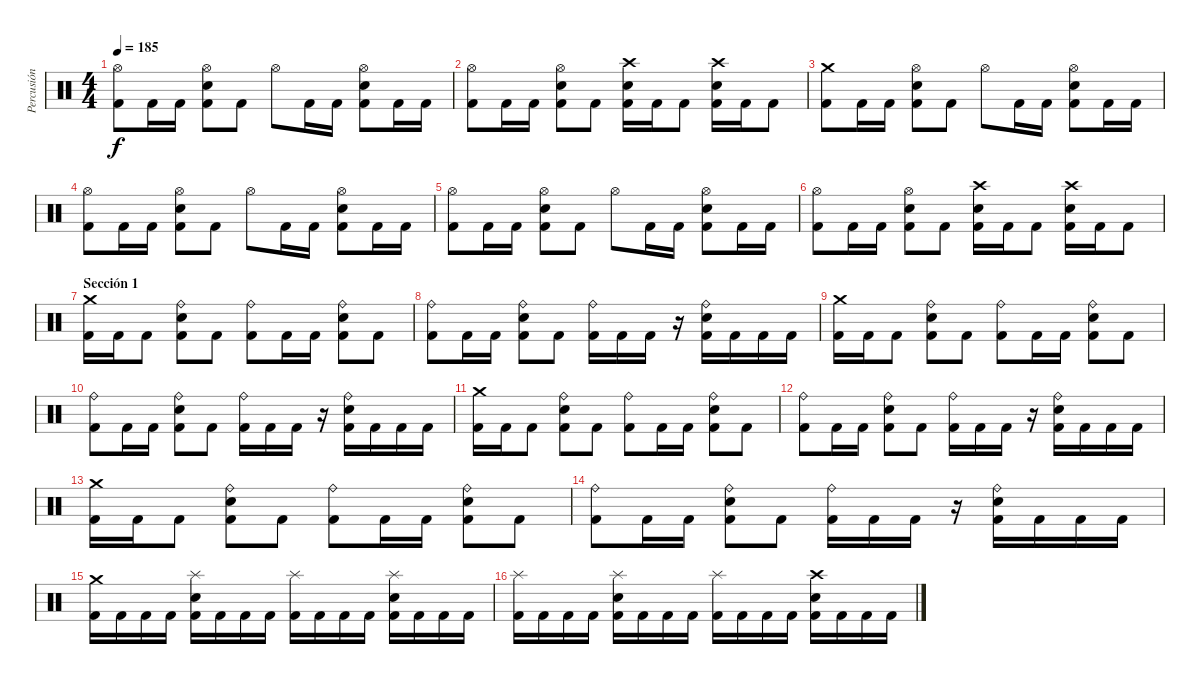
\track ("Percusión" "Percusión") {instrument percussion}
\staff {score}
\articulation defaults
\ts (4 4)
\tempo 185
\clef neutral
\ks c
("Hi-Hat (open)" "Kick (hit) 2").8{dy f} "Kick (hit) 2".16 "Kick (hit) 2".16 ("Hi-Hat (open)" "Snare (hit) 2" "Kick (hit) 2").8 "Kick (hit) 2".8 "Hi-Hat (open)".8 "Kick (hit) 2".16 "Kick (hit) 2".16 ("Hi-Hat (open)" "Snare (hit) 2" "Kick (hit) 2").8 "Kick (hit) 2".16 "Kick (hit) 2".16 |
("Hi-Hat (open)" "Kick (hit) 2").8 "Kick (hit) 2".16 "Kick (hit) 2".16 ("Hi-Hat (open)" "Snare (hit) 2" "Kick (hit) 2").8 "Kick (hit) 2".8 ("Crash high (hit)" "Snare (hit) 2" "Kick (hit) 2").16 "Kick (hit) 2".16 "Kick (hit) 2".8 ("Crash high (hit)" "Snare (hit) 2" "Kick (hit) 2").16 "Kick (hit) 2".16 "Kick (hit) 2".8 |
("Crash medium (hit)" "Kick (hit) 2").8 "Kick (hit) 2".16 "Kick (hit) 2".16 ("Hi-Hat (open)" "Snare (hit) 2" "Kick (hit) 2").8 "Kick (hit) 2".8 "Hi-Hat (open)".8 "Kick (hit) 2".16 "Kick (hit) 2".16 ("Hi-Hat (open)" "Snare (hit) 2" "Kick (hit) 2").8 "Kick (hit) 2".16 "Kick (hit) 2".16 |
("Hi-Hat (open)" "Kick (hit) 2").8 "Kick (hit) 2".16 "Kick (hit) 2".16 ("Hi-Hat (open)" "Snare (hit) 2" "Kick (hit) 2").8 "Kick (hit) 2".8 "Hi-Hat (open)".8 "Kick (hit) 2".16 "Kick (hit) 2".16 ("Hi-Hat (open)" "Snare (hit) 2" "Kick (hit) 2").8 "Kick (hit) 2".16 "Kick (hit) 2".16 |
("Hi-Hat (open)" "Kick (hit) 2").8 "Kick (hit) 2".16 "Kick (hit) 2".16 ("Hi-Hat (open)" "Snare (hit) 2" "Kick (hit) 2").8 "Kick (hit) 2".8 "Hi-Hat (open)".8 "Kick (hit) 2".16 "Kick (hit) 2".16 ("Hi-Hat (open)" "Snare (hit) 2" "Kick (hit) 2").8 "Kick (hit) 2".16 "Kick (hit) 2".16 |
("Hi-Hat (open)" "Kick (hit) 2").8 "Kick (hit) 2".16 "Kick (hit) 2".16 ("Hi-Hat (open)" "Snare (hit) 2" "Kick (hit) 2").8 "Kick (hit) 2".8 ("Crash high (hit)" "Snare (hit) 2" "Kick (hit) 2").16 "Kick (hit) 2".16 "Kick (hit) 2".8 ("Crash high (hit)" "Snare (hit) 2" "Kick (hit) 2").16 "Kick (hit) 2".16 "Kick (hit) 2".8 |
\section ("" "Sección 1")
("Crash medium (hit)" "Kick (hit) 2").16 "Kick (hit) 2".16 "Kick (hit) 2".8 ("Ride (bell)" "Snare (hit) 2" "Kick (hit) 2").8 "Kick (hit) 2".8 ("Ride (bell)" "Kick (hit) 2").8 "Kick (hit) 2".16 "Kick (hit) 2".16 ("Ride (bell)" "Snare (hit) 2" "Kick (hit) 2").8 "Kick (hit) 2".8 |
("Ride (bell)" "Kick (hit) 2").8 "Kick (hit) 2".16 "Kick (hit) 2".16 ("Ride (bell)" "Snare (hit) 2" "Kick (hit) 2").8 "Kick (hit) 2".8 ("Ride (bell)" "Kick (hit) 2").16 "Kick (hit) 2".16 "Kick (hit) 2".16 r.16 ("Ride (bell)" "Snare (hit) 2" "Kick (hit) 2").16 "Kick (hit) 2".16 "Kick (hit) 2".16 "Kick (hit) 2".16 |
("Crash medium (hit)" "Kick (hit) 2").16 "Kick (hit) 2".16 "Kick (hit) 2".8 ("Ride (bell)" "Snare (hit) 2" "Kick (hit) 2").8 "Kick (hit) 2".8 ("Ride (bell)" "Kick (hit) 2").8 "Kick (hit) 2".16 "Kick (hit) 2".16 ("Ride (bell)" "Snare (hit) 2" "Kick (hit) 2").8 "Kick (hit) 2".8 |
("Ride (bell)" "Kick (hit) 2").8 "Kick (hit) 2".16 "Kick (hit) 2".16 ("Ride (bell)" "Snare (hit) 2" "Kick (hit) 2").8 "Kick (hit) 2".8 ("Ride (bell)" "Kick (hit) 2").16 "Kick (hit) 2".16 "Kick (hit) 2".16 r.16 ("Ride (bell)" "Snare (hit) 2" "Kick (hit) 2").16 "Kick (hit) 2".16 "Kick (hit) 2".16 "Kick (hit) 2".16 |
("Crash medium (hit)" "Kick (hit) 2").16 "Kick (hit) 2".16 "Kick (hit) 2".8 ("Ride (bell)" "Snare (hit) 2" "Kick (hit) 2").8 "Kick (hit) 2".8 ("Ride (bell)" "Kick (hit) 2").8 "Kick (hit) 2".16 "Kick (hit) 2".16 ("Ride (bell)" "Snare (hit) 2" "Kick (hit) 2").8 "Kick (hit) 2".8 |
("Ride (bell)" "Kick (hit) 2").8 "Kick (hit) 2".16 "Kick (hit) 2".16 ("Ride (bell)" "Snare (hit) 2" "Kick (hit) 2").8 "Kick (hit) 2".8 ("Ride (bell)" "Kick (hit) 2").16 "Kick (hit) 2".16 "Kick (hit) 2".16 r.16 ("Ride (bell)" "Snare (hit) 2" "Kick (hit) 2").16 "Kick (hit) 2".16 "Kick (hit) 2".16 "Kick (hit) 2".16 |
("Crash medium (hit)" "Kick (hit) 2").16 "Kick (hit) 2".16 "Kick (hit) 2".8 ("Ride (bell)" "Snare (hit) 2" "Kick (hit) 2").8 "Kick (hit) 2".8 ("Ride (bell)" "Kick (hit) 2").8 "Kick (hit) 2".16 "Kick (hit) 2".16 ("Ride (bell)" "Snare (hit) 2" "Kick (hit) 2").8 "Kick (hit) 2".8 |
("Ride (bell)" "Kick (hit) 2").8 "Kick (hit) 2".16 "Kick (hit) 2".16 ("Ride (bell)" "Snare (hit) 2" "Kick (hit) 2").8 "Kick (hit) 2".8 ("Ride (bell)" "Kick (hit) 2").16 "Kick (hit) 2".16 "Kick (hit) 2".16 r.16 ("Ride (bell)" "Snare (hit) 2" "Kick (hit) 2").16 "Kick (hit) 2".16 "Kick (hit) 2".16 "Kick (hit) 2".16 |
\section ("" "")
("Crash medium (hit)" "Kick (hit) 2").16 "Kick (hit) 2".16 "Kick (hit) 2".16 "Kick (hit) 2".16 ("Splash (hit)" "Snare (hit) 2" "Kick (hit) 2").16 "Kick (hit) 2".16 "Kick (hit) 2".16 "Kick (hit) 2".16 ("Splash (hit)" "Kick (hit) 2").16 "Kick (hit) 2".16 "Kick (hit) 2".16 "Kick (hit) 2".16 ("Splash (hit)" "Snare (hit) 2" "Kick (hit) 2").16 "Kick (hit) 2".16 "Kick (hit) 2".16 "Kick (hit) 2".16 |
("Splash (hit)" "Kick (hit) 2").16 "Kick (hit) 2".16 "Kick (hit) 2".16 "Kick (hit) 2".16 ("Splash (hit)" "Snare (hit) 2" "Kick (hit) 2").16 "Kick (hit) 2".16 "Kick (hit) 2".16 "Kick (hit) 2".16 ("Splash (hit)" "Kick (hit) 2").16 "Kick (hit) 2".16 "Kick (hit) 2".16 "Kick (hit) 2".16 ("Crash high (hit)" "Snare (hit) 2" "Kick (hit) 2").16 "Kick (hit) 2".16 "Kick (hit) 2".16 "Kick (hit) 2".16
